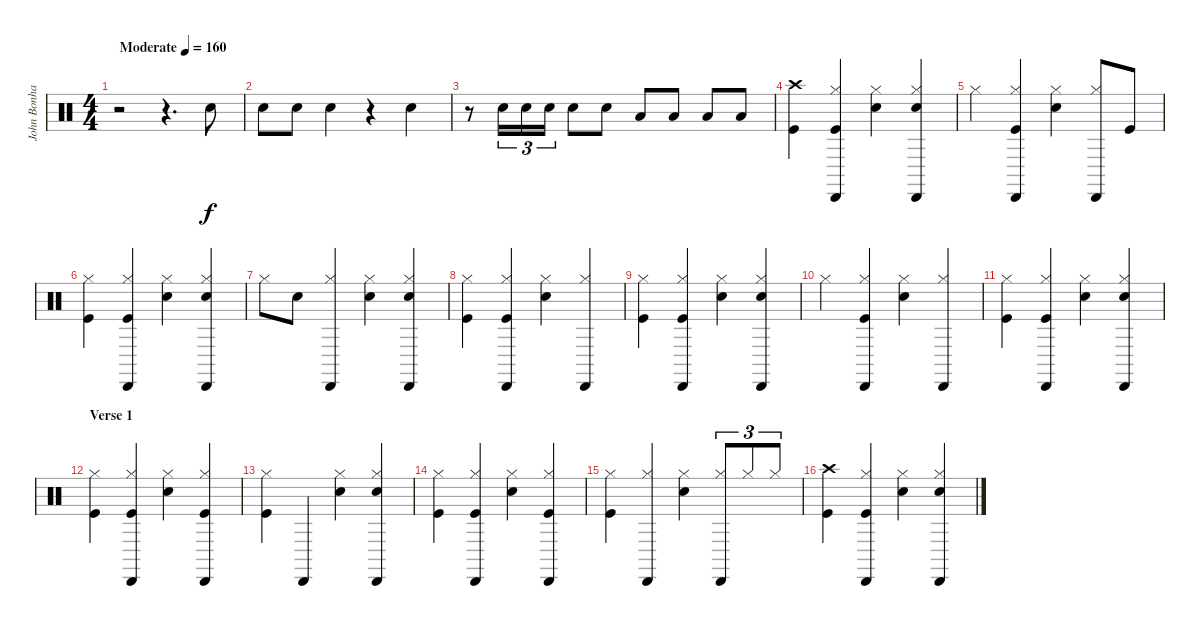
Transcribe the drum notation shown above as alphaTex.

\track ("John Bonham - Drums" "John Bonha") {instrument percussion}
\staff {score}
\articulation defaults
\ts (4 4)
\tempo (160 "Moderate")
\clef neutral
\ks c
r.2{dy f} r.4{d} "Snare (hit) 2".8 |
"Snare (hit) 2".8 "Snare (hit) 2".8 "Snare (hit) 2".4 r.4 "Snare (hit) 2".4 |
r.8 "Snare (hit) 2".16{tu (3 2)} "Snare (hit) 2".16{tu (3 2)} "Snare (hit) 2".16{tu (3 2)} "Snare (hit) 2".8 "Snare (hit) 2".8 "Low Tom (hit)".8 "Low Tom (hit)".8 "Low Floor Tom (hit)".8 "Low Floor Tom (hit)".8 |
("Crash high (hit)" "Kick (hit)").4 ("Hi-Hat (closed)" "Kick (hit)" "Cabasa (hit)").4 ("Hi-Hat (closed)" "Snare (hit) 2").4 ("Hi-Hat (closed)" "Snare (hit) 2" "Cabasa (hit)").4 |
"Hi-Hat (closed)".4 ("Kick (hit)" "Hi-Hat (closed)" "Cabasa (hit)").4 ("Snare (hit) 2" "Hi-Hat (closed)").4 ("Hi-Hat (closed)" "Cabasa (hit)").8 "Kick (hit)".8 |
("Kick (hit)" "Hi-Hat (closed)").4 ("Kick (hit)" "Hi-Hat (closed)" "Cabasa (hit)").4 ("Snare (hit) 2" "Hi-Hat (closed)").4 ("Snare (hit) 2" "Hi-Hat (closed)" "Cabasa (hit)").4 |
"Hi-Hat (closed)".8 "Snare (hit) 2".8 ("Hi-Hat (closed)" "Cabasa (hit)").4 ("Snare (hit) 2" "Hi-Hat (closed)").4 ("Snare (hit) 2" "Hi-Hat (closed)" "Cabasa (hit)").4 |
("Kick (hit)" "Hi-Hat (closed)").4 ("Kick (hit)" "Hi-Hat (closed)" "Cabasa (hit)").4 ("Snare (hit) 2" "Hi-Hat (closed)").4 ("Hi-Hat (closed)" "Cabasa (hit)").4 |
("Kick (hit)" "Hi-Hat (closed)").4 ("Kick (hit)" "Hi-Hat (closed)" "Cabasa (hit)").4 ("Snare (hit) 2" "Hi-Hat (closed)").4 ("Snare (hit) 2" "Hi-Hat (closed)" "Cabasa (hit)").4 |
"Hi-Hat (closed)".4 ("Kick (hit)" "Hi-Hat (closed)" "Cabasa (hit)").4 ("Snare (hit) 2" "Hi-Hat (closed)").4 ("Hi-Hat (closed)" "Cabasa (hit)").4 |
("Kick (hit)" "Hi-Hat (closed)").4 ("Kick (hit)" "Hi-Hat (closed)" "Cabasa (hit)").4 ("Snare (hit) 2" "Hi-Hat (closed)").4 ("Snare (hit) 2" "Hi-Hat (closed)" "Cabasa (hit)").4 |
\section ("" "Verse 1")
("Kick (hit)" "Hi-Hat (closed)").4 ("Kick (hit)" "Hi-Hat (closed)" "Cabasa (hit)").4 ("Snare (hit) 2" "Hi-Hat (closed)").4 ("Kick (hit)" "Hi-Hat (closed)" "Cabasa (hit)").4 |
("Kick (hit)" "Hi-Hat (closed)").4 "Cabasa (hit)".4 ("Snare (hit) 2" "Hi-Hat (closed)").4 ("Snare (hit) 2" "Hi-Hat (closed)" "Cabasa (hit)").4 |
("Kick (hit)" "Hi-Hat (closed)").4 ("Kick (hit)" "Hi-Hat (closed)" "Cabasa (hit)").4 ("Snare (hit) 2" "Hi-Hat (closed)").4 ("Kick (hit)" "Hi-Hat (closed)" "Cabasa (hit)").4 |
("Kick (hit)" "Hi-Hat (closed)").4 ("Hi-Hat (closed)" "Cabasa (hit)").4 ("Snare (hit) 2" "Hi-Hat (closed)").4 ("Hi-Hat (closed)" "Cabasa (hit)").8{tu (3 2)} "Hi-Hat (closed)".8{tu (3 2)} "Hi-Hat (closed)".8{tu (3 2)} |
("Kick (hit)" "Crash high (hit)").4 ("Hi-Hat (closed)" "Kick (hit)" "Cabasa (hit)").4 ("Hi-Hat (closed)" "Snare (hit) 2").4 ("Hi-Hat (closed)" "Snare (hit) 2" "Cabasa (hit)").4
